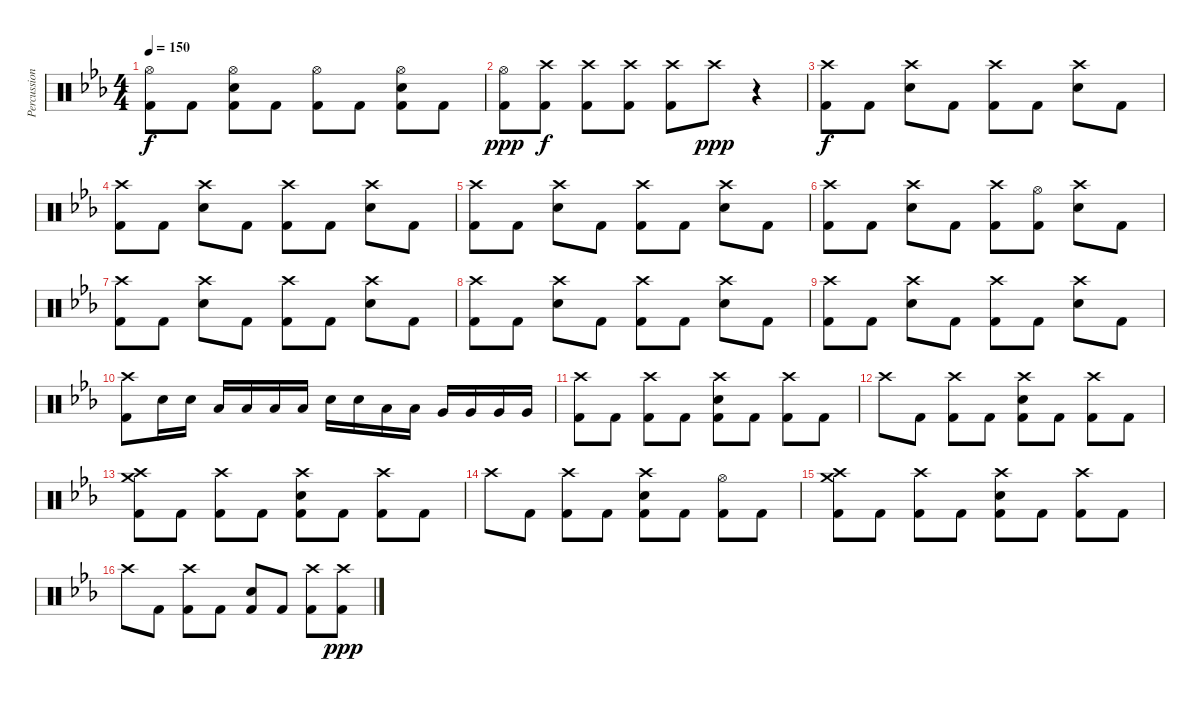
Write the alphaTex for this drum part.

\track ("Percussion" "Percussion") {instrument percussion}
\staff {score}
\articulation defaults
\ts (4 4)
\tempo 150
\clef neutral
\ks cminor
("Hi-Hat (open)" "Kick (hit) 2").8{dy f} "Kick (hit) 2".8 ("Hi-Hat (open)" "Electric Snare (hit)" "Kick (hit) 2").8 "Kick (hit) 2".8 ("Hi-Hat (open)" "Kick (hit) 2").8 "Kick (hit) 2".8 ("Hi-Hat (open)" "Electric Snare (hit)" "Kick (hit) 2").8 "Kick (hit) 2".8 |
("Hi-Hat (open)" "Kick (hit) 2").8{dy ppp} ("Crash high (hit)" "Kick (hit) 2").8{dy f} ("Crash high (hit)" "Kick (hit) 2").8 ("Crash high (hit)" "Kick (hit) 2").8 ("Crash high (hit)" "Kick (hit) 2").8 "Crash high (hit)".8{dy ppp} r.4 |
("Crash high (hit)" "Kick (hit) 2").8{dy f} "Kick (hit) 2".8 ("Crash high (hit)" "Electric Snare (hit)").8 "Kick (hit) 2".8 ("Crash high (hit)" "Kick (hit) 2").8 "Kick (hit) 2".8 ("Crash high (hit)" "Electric Snare (hit)").8 "Kick (hit) 2".8 |
("Crash high (hit)" "Kick (hit) 2").8 "Kick (hit) 2".8 ("Crash high (hit)" "Electric Snare (hit)").8 "Kick (hit) 2".8 ("Crash high (hit)" "Kick (hit) 2").8 "Kick (hit) 2".8 ("Crash high (hit)" "Electric Snare (hit)").8 "Kick (hit) 2".8 |
("Crash high (hit)" "Kick (hit) 2").8 "Kick (hit) 2".8 ("Crash high (hit)" "Electric Snare (hit)").8 "Kick (hit) 2".8 ("Crash high (hit)" "Kick (hit) 2").8 "Kick (hit) 2".8 ("Crash high (hit)" "Electric Snare (hit)").8 "Kick (hit) 2".8 |
("Crash high (hit)" "Kick (hit) 2").8 "Kick (hit) 2".8 ("Crash high (hit)" "Electric Snare (hit)").8 "Kick (hit) 2".8 ("Crash high (hit)" "Kick (hit) 2").8 ("Hi-Hat (open)" "Kick (hit) 2").8 ("Crash high (hit)" "Electric Snare (hit)").8 "Kick (hit) 2".8 |
("Crash high (hit)" "Kick (hit) 2").8 "Kick (hit) 2".8 ("Crash high (hit)" "Electric Snare (hit)").8 "Kick (hit) 2".8 ("Crash high (hit)" "Kick (hit) 2").8 "Kick (hit) 2".8 ("Crash high (hit)" "Electric Snare (hit)").8 "Kick (hit) 2".8 |
("Crash high (hit)" "Kick (hit) 2").8 "Kick (hit) 2".8 ("Crash high (hit)" "Electric Snare (hit)").8 "Kick (hit) 2".8 ("Crash high (hit)" "Kick (hit) 2").8 "Kick (hit) 2".8 ("Crash high (hit)" "Electric Snare (hit)").8 "Kick (hit) 2".8 |
("Crash high (hit)" "Kick (hit) 2").8 "Kick (hit) 2".8 ("Crash high (hit)" "Electric Snare (hit)").8 "Kick (hit) 2".8 ("Crash high (hit)" "Kick (hit) 2").8 "Kick (hit) 2".8 ("Crash high (hit)" "Electric Snare (hit)").8 "Kick (hit) 2".8 |
("Crash high (hit)" "Kick (hit) 2").8 "Electric Snare (hit)".16 "Electric Snare (hit)".16 "Low Tom (hit)".16 "Low Tom (hit)".16 "Low Tom (hit)".16 "Low Tom (hit)".16 "Electric Snare (hit)".16 "Electric Snare (hit)".16 "Low Tom (hit)".16 "Low Tom (hit)".16 "Very Low Tom (hit)".16 "Very Low Tom (hit)".16 "Very Low Tom (hit)".16 "Very Low Tom (hit)".16 |
("Crash high (hit)" "Kick (hit) 2").8 "Kick (hit) 2".8 ("Crash high (hit)" "Kick (hit) 2").8 "Kick (hit) 2".8 ("Crash high (hit)" "Electric Snare (hit)" "Kick (hit) 2").8 "Kick (hit) 2".8 ("Crash high (hit)" "Kick (hit) 2").8 "Kick (hit) 2".8 |
"Crash high (hit)".8 "Kick (hit) 2".8 ("Crash high (hit)" "Kick (hit) 2").8 "Kick (hit) 2".8 ("Crash high (hit)" "Electric Snare (hit)" "Kick (hit) 2").8 "Kick (hit) 2".8 ("Crash high (hit)" "Kick (hit) 2").8 "Kick (hit) 2".8 |
("Crash high (hit)" "Crash medium (hit)" "Kick (hit) 2").8 "Kick (hit) 2".8 ("Crash high (hit)" "Kick (hit) 2").8 "Kick (hit) 2".8 ("Crash high (hit)" "Electric Snare (hit)" "Kick (hit) 2").8 "Kick (hit) 2".8 ("Crash high (hit)" "Kick (hit) 2").8 "Kick (hit) 2".8 |
"Crash high (hit)".8 "Kick (hit) 2".8 ("Crash high (hit)" "Kick (hit) 2").8 "Kick (hit) 2".8 ("Crash high (hit)" "Electric Snare (hit)" "Kick (hit) 2").8 "Kick (hit) 2".8 ("Hi-Hat (open)" "Kick (hit) 2").8 "Kick (hit) 2".8 |
("Crash high (hit)" "Crash medium (hit)" "Kick (hit) 2").8 "Kick (hit) 2".8 ("Crash high (hit)" "Kick (hit) 2").8 "Kick (hit) 2".8 ("Crash high (hit)" "Electric Snare (hit)" "Kick (hit) 2").8 "Kick (hit) 2".8 ("Crash high (hit)" "Kick (hit) 2").8 "Kick (hit) 2".8 |
"Crash high (hit)".8 "Kick (hit) 2".8 ("Crash high (hit)" "Kick (hit) 2").8 "Kick (hit) 2".8 ("Electric Snare (hit)" "Kick (hit) 2").8 "Kick (hit) 2".8 ("Crash high (hit)" "Kick (hit) 2").8 ("Crash high (hit)" "Kick (hit) 2").8{dy ppp}
